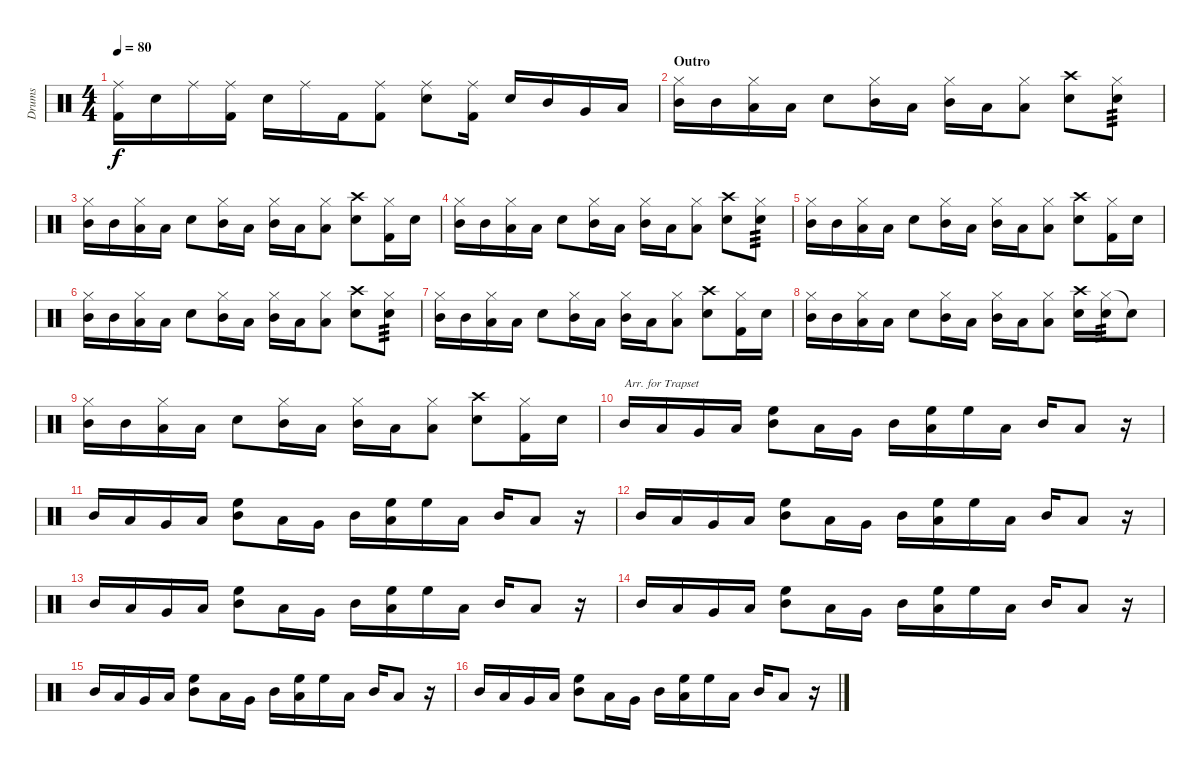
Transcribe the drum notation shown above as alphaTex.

\track ("Drums" "Drums") {instrument percussion}
\staff {score}
\articulation defaults
\ts (4 4)
\tempo 80
\clef neutral
\ks c
("Ride (middle)" "Kick (hit) 2").16{dy f} "Snare (hit) 2".16 "Ride (middle)".16 ("Ride (middle)" "Kick (hit) 2").16 "Snare (hit) 2".16 "Ride (middle)".16 "Kick (hit) 2".16 ("Ride (middle)" "Kick (hit) 2").8 ("Ride (middle)" "Snare (hit) 2").8 ("Ride (middle)" "Kick (hit) 2").16 "Snare (hit) 2".16 "Mid Tom (hit)".16 "Very Low Tom (hit)".16 "Low Floor Tom (hit)".16 |
\section ("" "Outro")
("Hi-Hat (closed)" "Mid Tom (hit)").16 "Mid Tom (hit)".16 ("Hi-Hat (closed)" "Low Floor Tom (hit)").16 "Low Floor Tom (hit)".16 "Snare (hit) 2".8 ("Hi-Hat (closed)" "Mid Tom (hit)").16 "Low Floor Tom (hit)".16 ("Hi-Hat (closed)" "Mid Tom (hit)").16 "Low Floor Tom (hit)".16 ("Hi-Hat (closed)" "Low Floor Tom (hit)").8 ("Crash high (hit)" "Snare (hit) 2").8 ("Hi-Hat (closed)" "Snare (hit) 2").8{tp 3} |
("Hi-Hat (closed)" "Mid Tom (hit)").16 "Mid Tom (hit)".16 ("Hi-Hat (closed)" "Low Floor Tom (hit)").16 "Low Floor Tom (hit)".16 "Snare (hit) 2".8 ("Hi-Hat (closed)" "Mid Tom (hit)").16 "Low Floor Tom (hit)".16 ("Hi-Hat (closed)" "Mid Tom (hit)").16 "Low Floor Tom (hit)".16 ("Hi-Hat (closed)" "Low Floor Tom (hit)").8 ("Crash high (hit)" "Snare (hit) 2").8 ("Hi-Hat (closed)" "Kick (hit) 2").16 "Snare (hit) 2".16 |
("Hi-Hat (closed)" "Mid Tom (hit)").16 "Mid Tom (hit)".16 ("Hi-Hat (closed)" "Low Floor Tom (hit)").16 "Low Floor Tom (hit)".16 "Snare (hit) 2".8 ("Hi-Hat (closed)" "Mid Tom (hit)").16 "Low Floor Tom (hit)".16 ("Hi-Hat (closed)" "Mid Tom (hit)").16 "Low Floor Tom (hit)".16 ("Hi-Hat (closed)" "Low Floor Tom (hit)").8 ("Crash high (hit)" "Snare (hit) 2").8 ("Hi-Hat (closed)" "Snare (hit) 2").8{tp 3} |
("Hi-Hat (closed)" "Mid Tom (hit)").16 "Mid Tom (hit)".16 ("Hi-Hat (closed)" "Low Floor Tom (hit)").16 "Low Floor Tom (hit)".16 "Snare (hit) 2".8 ("Hi-Hat (closed)" "Mid Tom (hit)").16 "Low Floor Tom (hit)".16 ("Hi-Hat (closed)" "Mid Tom (hit)").16 "Low Floor Tom (hit)".16 ("Hi-Hat (closed)" "Low Floor Tom (hit)").8 ("Crash high (hit)" "Snare (hit) 2").8 ("Hi-Hat (closed)" "Kick (hit) 2").16 "Snare (hit) 2".16 |
("Hi-Hat (closed)" "Mid Tom (hit)").16 "Mid Tom (hit)".16 ("Hi-Hat (closed)" "Low Floor Tom (hit)").16 "Low Floor Tom (hit)".16 "Snare (hit) 2".8 ("Hi-Hat (closed)" "Mid Tom (hit)").16 "Low Floor Tom (hit)".16 ("Hi-Hat (closed)" "Mid Tom (hit)").16 "Low Floor Tom (hit)".16 ("Hi-Hat (closed)" "Low Floor Tom (hit)").8 ("Crash high (hit)" "Snare (hit) 2").8 ("Hi-Hat (closed)" "Snare (hit) 2").8{tp 3} |
("Hi-Hat (closed)" "Mid Tom (hit)").16 "Mid Tom (hit)".16 ("Hi-Hat (closed)" "Low Floor Tom (hit)").16 "Low Floor Tom (hit)".16 "Snare (hit) 2".8 ("Hi-Hat (closed)" "Mid Tom (hit)").16 "Low Floor Tom (hit)".16 ("Hi-Hat (closed)" "Mid Tom (hit)").16 "Low Floor Tom (hit)".16 ("Hi-Hat (closed)" "Low Floor Tom (hit)").8 ("Crash high (hit)" "Snare (hit) 2").8 ("Hi-Hat (closed)" "Kick (hit) 2").16 "Snare (hit) 2".16 |
("Hi-Hat (closed)" "Mid Tom (hit)").16 "Mid Tom (hit)".16 ("Hi-Hat (closed)" "Low Floor Tom (hit)").16 "Low Floor Tom (hit)".16 "Snare (hit) 2".8 ("Hi-Hat (closed)" "Mid Tom (hit)").16 "Low Floor Tom (hit)".16 ("Hi-Hat (closed)" "Mid Tom (hit)").16 "Low Floor Tom (hit)".16 ("Hi-Hat (closed)" "Low Floor Tom (hit)").8 ("Crash high (hit)" "Snare (hit) 2").16 ("Hi-Hat (closed)" "Snare (hit) 2").16{tp 3} "Snare (hit)"{t}.8 |
("Hi-Hat (closed)" "Mid Tom (hit)").16 "Mid Tom (hit)".16 ("Hi-Hat (closed)" "Low Floor Tom (hit)").16 "Low Floor Tom (hit)".16 "Snare (hit) 2".8 ("Hi-Hat (closed)" "Mid Tom (hit)").16 "Low Floor Tom (hit)".16 ("Hi-Hat (closed)" "Mid Tom (hit)").16 "Low Floor Tom (hit)".16 ("Hi-Hat (closed)" "Low Floor Tom (hit)").8 ("Crash high (hit)" "Snare (hit) 2").8 ("Hi-Hat (closed)" "Kick (hit) 2").16 "Snare (hit) 2".16 |
"Mid Tom (hit)".16{txt "Arr. for Trapset"} "Low Tom (hit)".16 "Very Low Tom (hit)".16 "Low Floor Tom (hit)".16 ("High Floor Tom (hit)" "Mid Tom (hit)").8 "Low Tom (hit)".16 "Very Low Tom (hit)".16 "Mid Tom (hit)".16 ("High Floor Tom (hit)" "Low Tom (hit)").16 "High Floor Tom (hit)".16 "Low Floor Tom (hit)".16 "Mid Tom (hit)".16 "Low Floor Tom (hit)".8 r.16 |
"Mid Tom (hit)".16 "Low Tom (hit)".16 "Very Low Tom (hit)".16 "Low Floor Tom (hit)".16 ("High Floor Tom (hit)" "Mid Tom (hit)").8 "Low Tom (hit)".16 "Very Low Tom (hit)".16 "Mid Tom (hit)".16 ("High Floor Tom (hit)" "Low Tom (hit)").16 "High Floor Tom (hit)".16 "Low Floor Tom (hit)".16 "Mid Tom (hit)".16 "Low Floor Tom (hit)".8 r.16 |
"Mid Tom (hit)".16 "Low Tom (hit)".16 "Very Low Tom (hit)".16 "Low Floor Tom (hit)".16 ("High Floor Tom (hit)" "Mid Tom (hit)").8 "Low Tom (hit)".16 "Very Low Tom (hit)".16 "Mid Tom (hit)".16 ("High Floor Tom (hit)" "Low Tom (hit)").16 "High Floor Tom (hit)".16 "Low Floor Tom (hit)".16 "Mid Tom (hit)".16 "Low Floor Tom (hit)".8 r.16 |
"Mid Tom (hit)".16 "Low Tom (hit)".16 "Very Low Tom (hit)".16 "Low Floor Tom (hit)".16 ("High Floor Tom (hit)" "Mid Tom (hit)").8 "Low Tom (hit)".16 "Very Low Tom (hit)".16 "Mid Tom (hit)".16 ("High Floor Tom (hit)" "Low Tom (hit)").16 "High Floor Tom (hit)".16 "Low Floor Tom (hit)".16 "Mid Tom (hit)".16 "Low Floor Tom (hit)".8 r.16 |
"Mid Tom (hit)".16 "Low Tom (hit)".16 "Very Low Tom (hit)".16 "Low Floor Tom (hit)".16 ("High Floor Tom (hit)" "Mid Tom (hit)").8 "Low Tom (hit)".16 "Very Low Tom (hit)".16 "Mid Tom (hit)".16 ("High Floor Tom (hit)" "Low Tom (hit)").16 "High Floor Tom (hit)".16 "Low Floor Tom (hit)".16 "Mid Tom (hit)".16 "Low Floor Tom (hit)".8 r.16 |
"Mid Tom (hit)".16 "Low Tom (hit)".16 "Very Low Tom (hit)".16 "Low Floor Tom (hit)".16 ("High Floor Tom (hit)" "Mid Tom (hit)").8 "Low Tom (hit)".16 "Very Low Tom (hit)".16 "Mid Tom (hit)".16 ("High Floor Tom (hit)" "Low Tom (hit)").16 "High Floor Tom (hit)".16 "Low Floor Tom (hit)".16 "Mid Tom (hit)".16 "Low Floor Tom (hit)".8 r.16 |
"Mid Tom (hit)".16 "Low Tom (hit)".16 "Very Low Tom (hit)".16 "Low Floor Tom (hit)".16 ("High Floor Tom (hit)" "Mid Tom (hit)").8 "Low Tom (hit)".16 "Very Low Tom (hit)".16 "Mid Tom (hit)".16 ("High Floor Tom (hit)" "Low Tom (hit)").16 "High Floor Tom (hit)".16 "Low Floor Tom (hit)".16 "Mid Tom (hit)".16 "Low Floor Tom (hit)".8 r.16
